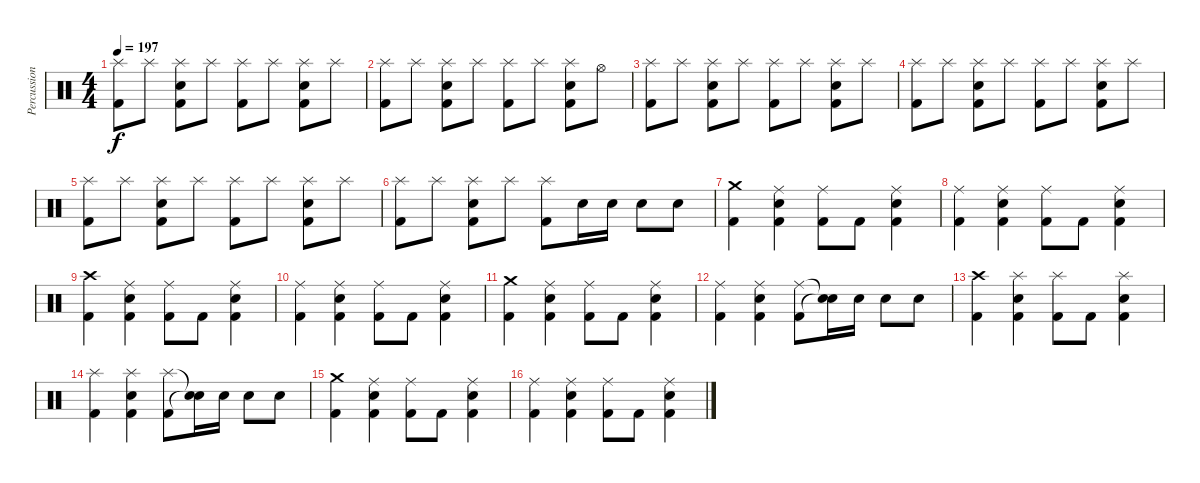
\track ("Percussion" "Percussion") {instrument percussion}
\staff {score}
\articulation defaults
\ts (4 4)
\tempo 197
\clef neutral
\ks c
("Splash (hit)" "Kick (hit) 2").8{dy f} "Splash (hit)".8 ("Snare (hit) 2" "Splash (hit)" "Kick (hit) 2").8 "Splash (hit)".8 ("Splash (hit)" "Kick (hit) 2").8 "Splash (hit)".8 ("Snare (hit) 2" "Splash (hit)" "Kick (hit) 2").8 "Splash (hit)".8 |
("Splash (hit)" "Kick (hit) 2").8 "Splash (hit)".8 ("Snare (hit) 2" "Splash (hit)" "Kick (hit) 2").8 "Splash (hit)".8 ("Splash (hit)" "Kick (hit) 2").8 "Splash (hit)".8 ("Snare (hit) 2" "Splash (hit)" "Kick (hit) 2").8 "Hi-Hat (open)".8 |
("Splash (hit)" "Kick (hit) 2").8 "Splash (hit)".8 ("Snare (hit) 2" "Splash (hit)" "Kick (hit) 2").8 "Splash (hit)".8 ("Splash (hit)" "Kick (hit) 2").8 "Splash (hit)".8 ("Snare (hit) 2" "Splash (hit)" "Kick (hit) 2").8 "Splash (hit)".8 |
("Splash (hit)" "Kick (hit) 2").8 "Splash (hit)".8 ("Snare (hit) 2" "Splash (hit)" "Kick (hit) 2").8 "Splash (hit)".8 ("Splash (hit)" "Kick (hit) 2").8 "Splash (hit)".8 ("Snare (hit) 2" "Splash (hit)" "Kick (hit) 2").8 "Splash (hit)".8 |
("Splash (hit)" "Kick (hit) 2").8 "Splash (hit)".8 ("Snare (hit) 2" "Splash (hit)" "Kick (hit) 2").8 "Splash (hit)".8 ("Splash (hit)" "Kick (hit) 2").8 "Splash (hit)".8 ("Snare (hit) 2" "Splash (hit)" "Kick (hit) 2").8 "Splash (hit)".8 |
("Splash (hit)" "Kick (hit) 2").8 "Splash (hit)".8 ("Snare (hit) 2" "Splash (hit)" "Kick (hit) 2").8 "Splash (hit)".8 ("Splash (hit)" "Kick (hit) 2").8 "Snare (hit) 2".16 "Snare (hit) 2".16 "Snare (hit) 2".8 "Snare (hit) 2".8 |
("Crash medium (hit)" "Kick (hit) 2").4 ("Snare (hit) 2" "Ride (middle)" "Kick (hit) 2").4 ("Ride (middle)" "Kick (hit) 2").8 "Kick (hit) 2".8 ("Snare (hit) 2" "Ride (middle)" "Kick (hit) 2").4 |
("Ride (middle)" "Kick (hit) 2").4 ("Snare (hit) 2" "Ride (middle)" "Kick (hit) 2").4 ("Ride (middle)" "Kick (hit) 2").8 "Kick (hit) 2".8 ("Snare (hit) 2" "Ride (middle)" "Kick (hit) 2").4 |
("Crash high (hit)" "Kick (hit) 2").4 ("Snare (hit) 2" "Ride (middle)" "Kick (hit) 2").4 ("Ride (middle)" "Kick (hit) 2").8 "Kick (hit) 2".8 ("Snare (hit) 2" "Ride (middle)" "Kick (hit) 2").4 |
("Ride (middle)" "Kick (hit) 2").4 ("Snare (hit) 2" "Ride (middle)" "Kick (hit) 2").4 ("Ride (middle)" "Kick (hit) 2").8 "Kick (hit) 2".8 ("Snare (hit) 2" "Ride (middle)" "Kick (hit) 2").4 |
("Crash medium (hit)" "Kick (hit) 2").4 ("Snare (hit) 2" "Ride (middle)" "Kick (hit) 2").4 ("Ride (middle)" "Kick (hit) 2").8 "Kick (hit) 2".8 ("Snare (hit) 2" "Ride (middle)" "Kick (hit) 2").4 |
("Ride (middle)" "Kick (hit) 2").4 ("Snare (hit) 2" "Ride (middle)" "Kick (hit) 2").4 ("Ride (middle)" "Kick (hit) 2").8 ("Snare (hit)"{t} "Snare (hit)"{t}).16 "Snare (hit) 2".16 "Snare (hit) 2".8 "Snare (hit) 2".8 |
("Crash high (hit)" "Kick (hit) 2").4 ("Snare (hit) 2" "Splash (hit)" "Kick (hit) 2").4 ("Splash (hit)" "Kick (hit) 2").8 "Kick (hit) 2".8 ("Snare (hit) 2" "Splash (hit)" "Kick (hit) 2").4 |
("Splash (hit)" "Kick (hit) 2").4 ("Snare (hit) 2" "Splash (hit)" "Kick (hit) 2").4 ("Splash (hit)" "Kick (hit) 2").8 ("Snare (hit)"{t} "Snare (hit)"{t}).16 "Snare (hit) 2".16 "Snare (hit) 2".8 "Snare (hit) 2".8 |
("Crash medium (hit)" "Kick (hit) 2").4 ("Snare (hit) 2" "Ride (middle)" "Kick (hit) 2").4 ("Ride (middle)" "Kick (hit) 2").8 "Kick (hit) 2".8 ("Snare (hit) 2" "Ride (middle)" "Kick (hit) 2").4 |
("Ride (middle)" "Kick (hit) 2").4 ("Snare (hit) 2" "Ride (middle)" "Kick (hit) 2").4 ("Ride (middle)" "Kick (hit) 2").8 "Kick (hit) 2".8 ("Snare (hit) 2" "Ride (middle)" "Kick (hit) 2").4
